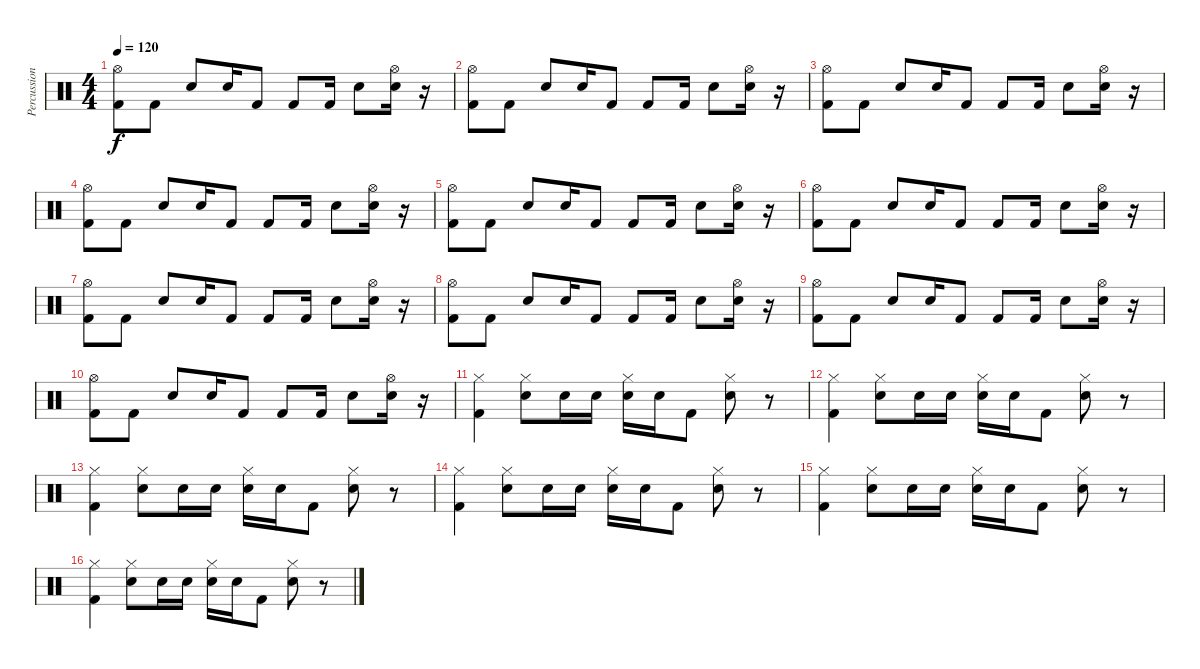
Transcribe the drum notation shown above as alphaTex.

\track ("Percussion - CJ" "Percussion") {instrument percussion}
\staff {score}
\articulation defaults
\ts (4 4)
\tempo 120
\clef neutral
\ks c
("Kick (hit) 2" "Hi-Hat (open)").8{dy f} "Kick (hit) 2".8 "Electric Snare (hit)".8 "Electric Snare (hit)".16 "Kick (hit) 2".8 "Kick (hit) 2".8 "Kick (hit) 2".16 "Electric Snare (hit)".8 ("Electric Snare (hit)" "Hi-Hat (open)").16 r.16 |
("Kick (hit) 2" "Hi-Hat (open)").8 "Kick (hit) 2".8 "Electric Snare (hit)".8 "Electric Snare (hit)".16 "Kick (hit) 2".8 "Kick (hit) 2".8 "Kick (hit) 2".16 "Electric Snare (hit)".8 ("Electric Snare (hit)" "Hi-Hat (open)").16 r.16 |
("Kick (hit) 2" "Hi-Hat (open)").8 "Kick (hit) 2".8 "Electric Snare (hit)".8 "Electric Snare (hit)".16 "Kick (hit) 2".8 "Kick (hit) 2".8 "Kick (hit) 2".16 "Electric Snare (hit)".8 ("Electric Snare (hit)" "Hi-Hat (open)").16 r.16 |
("Kick (hit) 2" "Hi-Hat (open)").8 "Kick (hit) 2".8 "Electric Snare (hit)".8 "Electric Snare (hit)".16 "Kick (hit) 2".8 "Kick (hit) 2".8 "Kick (hit) 2".16 "Electric Snare (hit)".8 ("Electric Snare (hit)" "Hi-Hat (open)").16 r.16 |
("Kick (hit) 2" "Hi-Hat (open)").8 "Kick (hit) 2".8 "Electric Snare (hit)".8 "Electric Snare (hit)".16 "Kick (hit) 2".8 "Kick (hit) 2".8 "Kick (hit) 2".16 "Electric Snare (hit)".8 ("Electric Snare (hit)" "Hi-Hat (open)").16 r.16 |
("Kick (hit) 2" "Hi-Hat (open)").8 "Kick (hit) 2".8 "Electric Snare (hit)".8 "Electric Snare (hit)".16 "Kick (hit) 2".8 "Kick (hit) 2".8 "Kick (hit) 2".16 "Electric Snare (hit)".8 ("Electric Snare (hit)" "Hi-Hat (open)").16 r.16 |
("Kick (hit) 2" "Hi-Hat (open)").8 "Kick (hit) 2".8 "Electric Snare (hit)".8 "Electric Snare (hit)".16 "Kick (hit) 2".8 "Kick (hit) 2".8 "Kick (hit) 2".16 "Electric Snare (hit)".8 ("Electric Snare (hit)" "Hi-Hat (open)").16 r.16 |
("Kick (hit) 2" "Hi-Hat (open)").8 "Kick (hit) 2".8 "Electric Snare (hit)".8 "Electric Snare (hit)".16 "Kick (hit) 2".8 "Kick (hit) 2".8 "Kick (hit) 2".16 "Electric Snare (hit)".8 ("Electric Snare (hit)" "Hi-Hat (open)").16 r.16 |
("Kick (hit) 2" "Hi-Hat (open)").8 "Kick (hit) 2".8 "Electric Snare (hit)".8 "Electric Snare (hit)".16 "Kick (hit) 2".8 "Kick (hit) 2".8 "Kick (hit) 2".16 "Electric Snare (hit)".8 ("Electric Snare (hit)" "Hi-Hat (open)").16 r.16 |
("Kick (hit) 2" "Hi-Hat (open)").8 "Kick (hit) 2".8 "Electric Snare (hit)".8 "Electric Snare (hit)".16 "Kick (hit) 2".8 "Kick (hit) 2".8 "Kick (hit) 2".16 "Electric Snare (hit)".8 ("Electric Snare (hit)" "Hi-Hat (open)").16 r.16 |
("Kick (hit) 2" "Hi-Hat (closed)").4 ("Snare (hit) 2" "Hi-Hat (closed)").8 "Snare (hit) 2".16 "Snare (hit) 2".16 ("Snare (hit) 2" "Hi-Hat (closed)").16 "Snare (hit) 2".16 "Kick (hit) 2".8 ("Snare (hit) 2" "Hi-Hat (closed)").8 r.8 |
("Kick (hit) 2" "Hi-Hat (closed)").4 ("Snare (hit) 2" "Hi-Hat (closed)").8 "Snare (hit) 2".16 "Snare (hit) 2".16 ("Snare (hit) 2" "Hi-Hat (closed)").16 "Snare (hit) 2".16 "Kick (hit) 2".8 ("Snare (hit) 2" "Hi-Hat (closed)").8 r.8 |
("Kick (hit) 2" "Hi-Hat (closed)").4 ("Snare (hit) 2" "Hi-Hat (closed)").8 "Snare (hit) 2".16 "Snare (hit) 2".16 ("Snare (hit) 2" "Hi-Hat (closed)").16 "Snare (hit) 2".16 "Kick (hit) 2".8 ("Snare (hit) 2" "Hi-Hat (closed)").8 r.8 |
("Kick (hit) 2" "Hi-Hat (closed)").4 ("Snare (hit) 2" "Hi-Hat (closed)").8 "Snare (hit) 2".16 "Snare (hit) 2".16 ("Snare (hit) 2" "Hi-Hat (closed)").16 "Snare (hit) 2".16 "Kick (hit) 2".8 ("Snare (hit) 2" "Hi-Hat (closed)").8 r.8 |
("Kick (hit) 2" "Hi-Hat (closed)").4 ("Snare (hit) 2" "Hi-Hat (closed)").8 "Snare (hit) 2".16 "Snare (hit) 2".16 ("Snare (hit) 2" "Hi-Hat (closed)").16 "Snare (hit) 2".16 "Kick (hit) 2".8 ("Snare (hit) 2" "Hi-Hat (closed)").8 r.8 |
("Kick (hit) 2" "Hi-Hat (closed)").4 ("Snare (hit) 2" "Hi-Hat (closed)").8 "Snare (hit) 2".16 "Snare (hit) 2".16 ("Snare (hit) 2" "Hi-Hat (closed)").16 "Snare (hit) 2".16 "Kick (hit) 2".8 ("Snare (hit) 2" "Hi-Hat (closed)").8 r.8
